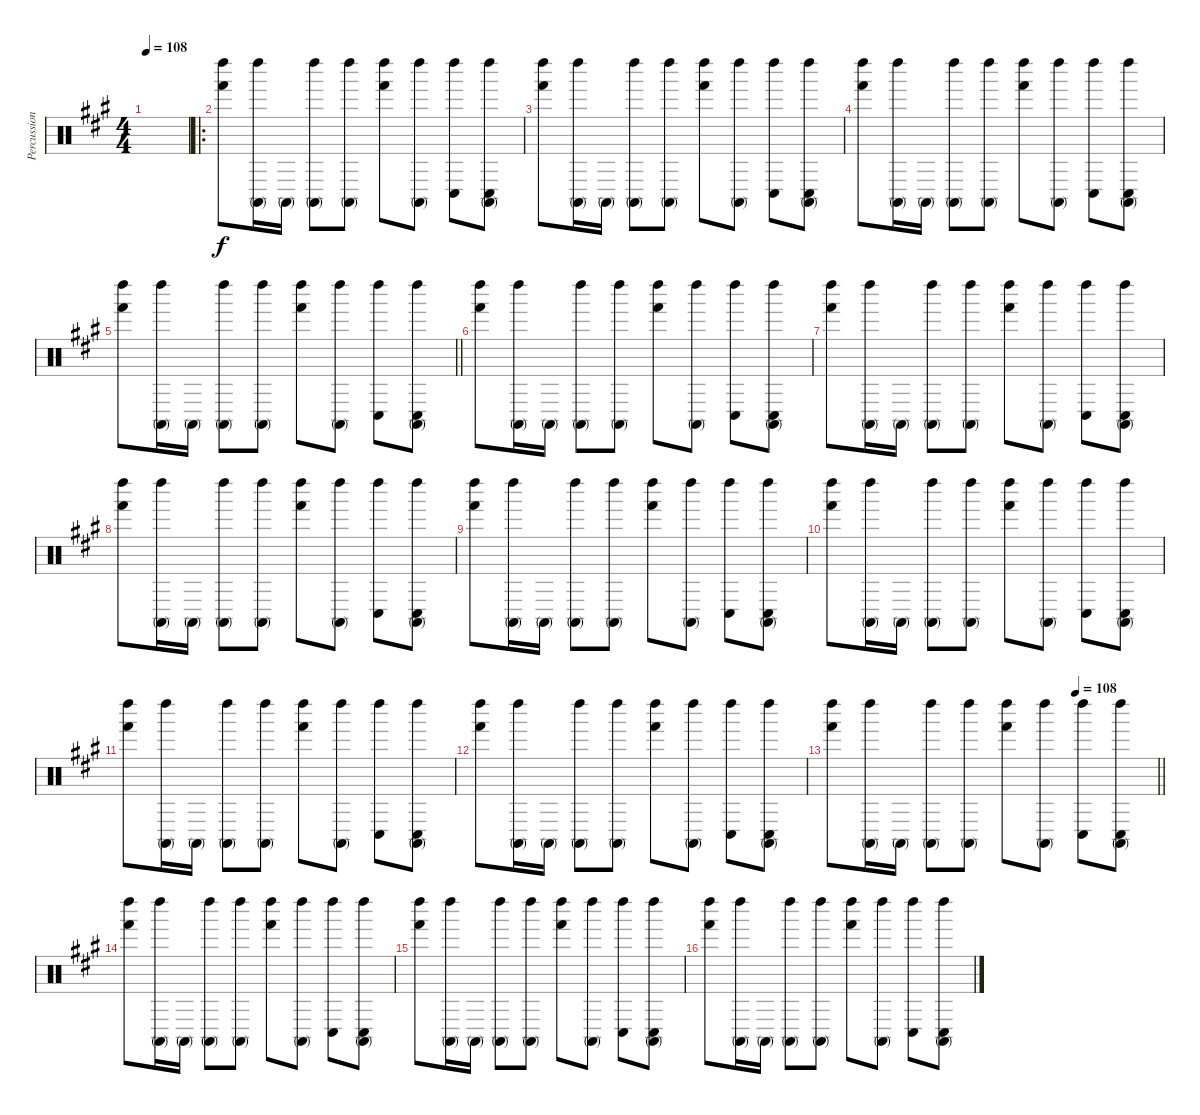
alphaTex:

\track ("Percussions" "Percussion") {instrument percussion}
\staff {score}
\articulation defaults
\ts (4 4)
\tempo 108
\clef neutral
\ks f#minor
|
\ro
("Hand (hit)" "Left Maraca (hit)").8 ("Left Maraca (hit)" "Conga high (mute)").16 "Conga high (mute)".16 ("Left Maraca (hit)" "Conga high (mute)").8 ("Left Maraca (hit)" "Conga high (mute)").8 ("Left Maraca (hit)" "Hand (hit)").8 ("Left Maraca (hit)" "Conga high (mute)").8 ("Left Maraca (hit)" "Conga low (hit)").8 ("Left Maraca (hit)" "Conga high (mute)" "Conga low (hit)").8 |
("Hand (hit)" "Left Maraca (hit)").8 ("Left Maraca (hit)" "Conga high (mute)").16 "Conga high (mute)".16 ("Left Maraca (hit)" "Conga high (mute)").8 ("Left Maraca (hit)" "Conga high (mute)").8 ("Left Maraca (hit)" "Hand (hit)").8 ("Left Maraca (hit)" "Conga high (mute)").8 ("Left Maraca (hit)" "Conga low (hit)").8 ("Left Maraca (hit)" "Conga high (mute)" "Conga low (hit)").8 |
("Hand (hit)" "Left Maraca (hit)").8 ("Left Maraca (hit)" "Conga high (mute)").16 "Conga high (mute)".16 ("Left Maraca (hit)" "Conga high (mute)").8 ("Left Maraca (hit)" "Conga high (mute)").8 ("Left Maraca (hit)" "Hand (hit)").8 ("Left Maraca (hit)" "Conga high (mute)").8 ("Left Maraca (hit)" "Conga low (hit)").8 ("Left Maraca (hit)" "Conga high (mute)" "Conga low (hit)").8 |
\barLineRight lightlight
("Hand (hit)" "Left Maraca (hit)").8 ("Left Maraca (hit)" "Conga high (mute)").16 "Conga high (mute)".16 ("Left Maraca (hit)" "Conga high (mute)").8 ("Left Maraca (hit)" "Conga high (mute)").8 ("Left Maraca (hit)" "Hand (hit)").8 ("Left Maraca (hit)" "Conga high (mute)").8 ("Left Maraca (hit)" "Conga low (hit)").8 ("Left Maraca (hit)" "Conga high (mute)" "Conga low (hit)").8 |
("Hand (hit)" "Left Maraca (hit)").8 ("Left Maraca (hit)" "Conga high (mute)").16 "Conga high (mute)".16 ("Left Maraca (hit)" "Conga high (mute)").8 ("Left Maraca (hit)" "Conga high (mute)").8 ("Left Maraca (hit)" "Hand (hit)").8 ("Left Maraca (hit)" "Conga high (mute)").8 ("Left Maraca (hit)" "Conga low (hit)").8 ("Left Maraca (hit)" "Conga high (mute)" "Conga low (hit)").8 |
("Hand (hit)" "Left Maraca (hit)").8 ("Left Maraca (hit)" "Conga high (mute)").16 "Conga high (mute)".16 ("Left Maraca (hit)" "Conga high (mute)").8 ("Left Maraca (hit)" "Conga high (mute)").8 ("Left Maraca (hit)" "Hand (hit)").8 ("Left Maraca (hit)" "Conga high (mute)").8 ("Left Maraca (hit)" "Conga low (hit)").8 ("Left Maraca (hit)" "Conga high (mute)" "Conga low (hit)").8 |
("Hand (hit)" "Left Maraca (hit)").8 ("Left Maraca (hit)" "Conga high (mute)").16 "Conga high (mute)".16 ("Left Maraca (hit)" "Conga high (mute)").8 ("Left Maraca (hit)" "Conga high (mute)").8 ("Left Maraca (hit)" "Hand (hit)").8 ("Left Maraca (hit)" "Conga high (mute)").8 ("Left Maraca (hit)" "Conga low (hit)").8 ("Left Maraca (hit)" "Conga high (mute)" "Conga low (hit)").8 |
("Hand (hit)" "Left Maraca (hit)").8 ("Left Maraca (hit)" "Conga high (mute)").16 "Conga high (mute)".16 ("Left Maraca (hit)" "Conga high (mute)").8 ("Left Maraca (hit)" "Conga high (mute)").8 ("Left Maraca (hit)" "Hand (hit)").8 ("Left Maraca (hit)" "Conga high (mute)").8 ("Left Maraca (hit)" "Conga low (hit)").8 ("Left Maraca (hit)" "Conga high (mute)" "Conga low (hit)").8 |
("Hand (hit)" "Left Maraca (hit)").8 ("Left Maraca (hit)" "Conga high (mute)").16 "Conga high (mute)".16 ("Left Maraca (hit)" "Conga high (mute)").8 ("Left Maraca (hit)" "Conga high (mute)").8 ("Left Maraca (hit)" "Hand (hit)").8 ("Left Maraca (hit)" "Conga high (mute)").8 ("Left Maraca (hit)" "Conga low (hit)").8 ("Left Maraca (hit)" "Conga high (mute)" "Conga low (hit)").8 |
("Hand (hit)" "Left Maraca (hit)").8 ("Left Maraca (hit)" "Conga high (mute)").16 "Conga high (mute)".16 ("Left Maraca (hit)" "Conga high (mute)").8 ("Left Maraca (hit)" "Conga high (mute)").8 ("Left Maraca (hit)" "Hand (hit)").8 ("Left Maraca (hit)" "Conga high (mute)").8 ("Left Maraca (hit)" "Conga low (hit)").8 ("Left Maraca (hit)" "Conga high (mute)" "Conga low (hit)").8 |
("Hand (hit)" "Left Maraca (hit)").8 ("Left Maraca (hit)" "Conga high (mute)").16 "Conga high (mute)".16 ("Left Maraca (hit)" "Conga high (mute)").8 ("Left Maraca (hit)" "Conga high (mute)").8 ("Left Maraca (hit)" "Hand (hit)").8 ("Left Maraca (hit)" "Conga high (mute)").8 ("Left Maraca (hit)" "Conga low (hit)").8 ("Left Maraca (hit)" "Conga high (mute)" "Conga low (hit)").8 |
\tempo (108 0.75)
\barLineRight lightlight
("Hand (hit)" "Left Maraca (hit)").8 ("Left Maraca (hit)" "Conga high (mute)").16 "Conga high (mute)".16 ("Left Maraca (hit)" "Conga high (mute)").8 ("Left Maraca (hit)" "Conga high (mute)").8 ("Left Maraca (hit)" "Hand (hit)").8 ("Left Maraca (hit)" "Conga high (mute)").8 ("Left Maraca (hit)" "Conga low (hit)").8 ("Left Maraca (hit)" "Conga high (mute)" "Conga low (hit)").8 |
("Hand (hit)" "Left Maraca (hit)").8 ("Left Maraca (hit)" "Conga high (mute)").16 "Conga high (mute)".16 ("Left Maraca (hit)" "Conga high (mute)").8 ("Left Maraca (hit)" "Conga high (mute)").8 ("Left Maraca (hit)" "Hand (hit)").8 ("Left Maraca (hit)" "Conga high (mute)").8 ("Left Maraca (hit)" "Conga low (hit)").8 ("Left Maraca (hit)" "Conga high (mute)" "Conga low (hit)").8 |
("Hand (hit)" "Left Maraca (hit)").8 ("Left Maraca (hit)" "Conga high (mute)").16 "Conga high (mute)".16 ("Left Maraca (hit)" "Conga high (mute)").8 ("Left Maraca (hit)" "Conga high (mute)").8 ("Left Maraca (hit)" "Hand (hit)").8 ("Left Maraca (hit)" "Conga high (mute)").8 ("Left Maraca (hit)" "Conga low (hit)").8 ("Left Maraca (hit)" "Conga high (mute)" "Conga low (hit)").8 |
("Hand (hit)" "Left Maraca (hit)").8 ("Left Maraca (hit)" "Conga high (mute)").16 "Conga high (mute)".16 ("Left Maraca (hit)" "Conga high (mute)").8 ("Left Maraca (hit)" "Conga high (mute)").8 ("Left Maraca (hit)" "Hand (hit)").8 ("Left Maraca (hit)" "Conga high (mute)").8 ("Left Maraca (hit)" "Conga low (hit)").8 ("Left Maraca (hit)" "Conga high (mute)" "Conga low (hit)").8
